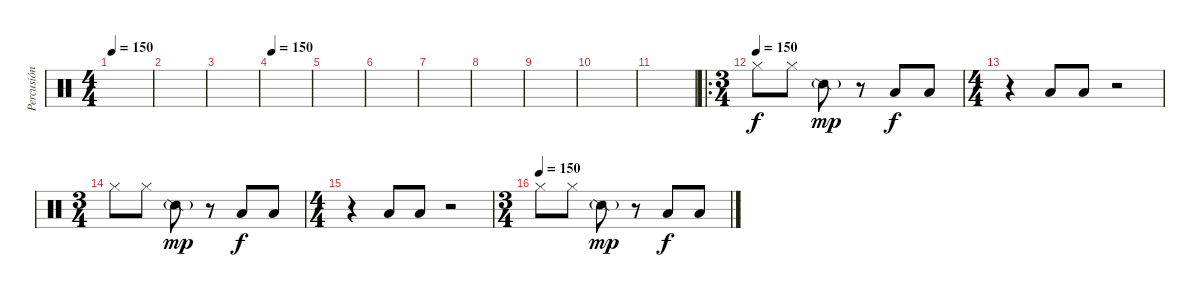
\track ("Percusión" "Percusión") {instrument percussion}
\staff {score}
\articulation defaults
\ts (4 4)
\tempo 150
\clef neutral
\ks c
|
|
|
\tempo 150
|
|
|
|
|
|
|
|
\ro
\ts (3 4)
\tempo (150)
"Hi-Hat (closed)".8 "Hi-Hat (closed)".8 "Snare (side stick) 2"{g}.8{dy mp} r.8 "Low Floor Tom (hit)".8{dy f} "Low Floor Tom (hit)".8 |
\ts (4 4)
r.4 "Low Floor Tom (hit)".8 "Low Floor Tom (hit)".8 r.2 |
\ts (3 4)
"Hi-Hat (closed)".8 "Hi-Hat (closed)".8 "Snare (side stick) 2"{g}.8{dy mp} r.8 "Low Floor Tom (hit)".8{dy f} "Low Floor Tom (hit)".8 |
\ts (4 4)
r.4 "Low Floor Tom (hit)".8 "Low Floor Tom (hit)".8 r.2 |
\ts (3 4)
\tempo (150)
"Hi-Hat (closed)".8 "Hi-Hat (closed)".8 "Snare (side stick) 2"{g}.8{dy mp} r.8 "Low Floor Tom (hit)".8{dy f} "Low Floor Tom (hit)".8
